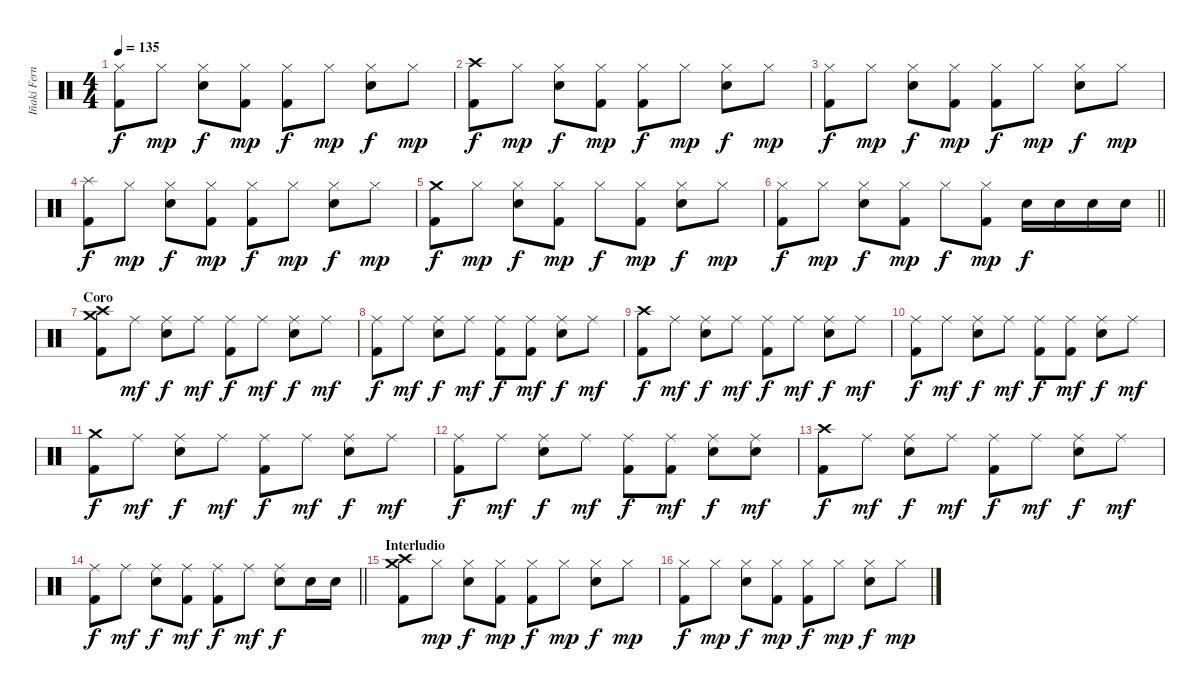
\track ("Iñaki Fernández" "Iñaki Fern") {instrument percussion}
\staff {score}
\articulation defaults
\ts (4 4)
\tempo 135
\clef neutral
\ks c
("Hi-Hat (closed)" "Kick (hit) 2").8{dy f} "Hi-Hat (closed)".8{dy mp} ("Hi-Hat (closed)" "Snare (hit) 2").8{dy f} ("Hi-Hat (closed)" "Kick (hit) 2").8{dy mp} ("Hi-Hat (closed)" "Kick (hit) 2").8{dy f} "Hi-Hat (closed)".8{dy mp} ("Hi-Hat (closed)" "Snare (hit) 2").8{dy f} "Hi-Hat (closed)".8{dy mp} |
("Crash high (hit)" "Kick (hit) 2").8{dy f} "Hi-Hat (closed)".8{dy mp} ("Hi-Hat (closed)" "Snare (hit) 2").8{dy f} ("Hi-Hat (closed)" "Kick (hit) 2").8{dy mp} ("Hi-Hat (closed)" "Kick (hit) 2").8{dy f} "Hi-Hat (closed)".8{dy mp} ("Hi-Hat (closed)" "Snare (hit) 2").8{dy f} "Hi-Hat (closed)".8{dy mp} |
("Hi-Hat (closed)" "Kick (hit) 2").8{dy f} "Hi-Hat (closed)".8{dy mp} ("Hi-Hat (closed)" "Snare (hit) 2").8{dy f} ("Hi-Hat (closed)" "Kick (hit) 2").8{dy mp} ("Hi-Hat (closed)" "Kick (hit) 2").8{dy f} "Hi-Hat (closed)".8{dy mp} ("Hi-Hat (closed)" "Snare (hit) 2").8{dy f} "Hi-Hat (closed)".8{dy mp} |
("Splash (hit)" "Kick (hit) 2").8{dy f} "Hi-Hat (closed)".8{dy mp} ("Hi-Hat (closed)" "Snare (hit) 2").8{dy f} ("Hi-Hat (closed)" "Kick (hit) 2").8{dy mp} ("Hi-Hat (closed)" "Kick (hit) 2").8{dy f} "Hi-Hat (closed)".8{dy mp} ("Hi-Hat (closed)" "Snare (hit) 2").8{dy f} "Hi-Hat (closed)".8{dy mp} |
("Crash medium (hit)" "Kick (hit) 2").8{dy f} "Hi-Hat (closed)".8{dy mp} ("Hi-Hat (closed)" "Snare (hit) 2").8{dy f} ("Hi-Hat (closed)" "Kick (hit) 2").8{dy mp} "Hi-Hat (closed)".8{dy f} ("Hi-Hat (closed)" "Kick (hit) 2").8{dy mp} ("Hi-Hat (closed)" "Snare (hit) 2").8{dy f} "Hi-Hat (closed)".8{dy mp} |
\barLineRight lightlight
("Hi-Hat (closed)" "Kick (hit) 2").8{dy f} "Hi-Hat (closed)".8{dy mp} ("Hi-Hat (closed)" "Snare (hit) 2").8{dy f} ("Hi-Hat (closed)" "Kick (hit) 2").8{dy mp} "Hi-Hat (closed)".8{dy f} ("Hi-Hat (closed)" "Kick (hit) 2").8{dy mp} "Snare (hit) 2".16{dy f} "Snare (hit) 2".16 "Snare (hit) 2".16 "Snare (hit) 2".16 |
\section ("" "Coro")
("Crash medium (hit)" "Crash high (hit)" "Kick (hit) 2").8 "Ride (middle)".8{dy mf} ("Ride (middle)" "Snare (hit) 2").8{dy f} "Ride (middle)".8{dy mf} ("Ride (middle)" "Kick (hit) 2").8{dy f} "Ride (middle)".8{dy mf} ("Ride (middle)" "Snare (hit) 2").8{dy f} "Ride (middle)".8{dy mf} |
("Ride (middle)" "Kick (hit) 2").8{dy f} "Ride (middle)".8{dy mf} ("Ride (middle)" "Snare (hit) 2").8{dy f} "Ride (middle)".8{dy mf} ("Ride (middle)" "Kick (hit) 2").8{dy f} ("Ride (middle)" "Kick (hit) 2").8{dy mf} ("Ride (middle)" "Snare (hit) 2").8{dy f} "Ride (middle)".8{dy mf} |
("Crash high (hit)" "Kick (hit) 2").8{dy f} "Ride (middle)".8{dy mf} ("Ride (middle)" "Snare (hit) 2").8{dy f} "Ride (middle)".8{dy mf} ("Ride (middle)" "Kick (hit) 2").8{dy f} "Ride (middle)".8{dy mf} ("Ride (middle)" "Snare (hit) 2").8{dy f} "Ride (middle)".8{dy mf} |
("Ride (middle)" "Kick (hit) 2").8{dy f} "Ride (middle)".8{dy mf} ("Ride (middle)" "Snare (hit) 2").8{dy f} "Ride (middle)".8{dy mf} ("Ride (middle)" "Kick (hit) 2").8{dy f} ("Ride (middle)" "Kick (hit) 2").8{dy mf} ("Ride (middle)" "Snare (hit) 2").8{dy f} "Ride (middle)".8{dy mf} |
("Crash medium (hit)" "Kick (hit) 2").8{dy f} "Ride (middle)".8{dy mf} ("Ride (middle)" "Snare (hit) 2").8{dy f} "Ride (middle)".8{dy mf} ("Ride (middle)" "Kick (hit) 2").8{dy f} "Ride (middle)".8{dy mf} ("Ride (middle)" "Snare (hit) 2").8{dy f} "Ride (middle)".8{dy mf} |
("Ride (middle)" "Kick (hit) 2").8{dy f} "Ride (middle)".8{dy mf} ("Ride (middle)" "Snare (hit) 2").8{dy f} "Ride (middle)".8{dy mf} ("Ride (middle)" "Kick (hit) 2").8{dy f} ("Ride (middle)" "Kick (hit) 2").8{dy mf} ("Ride (middle)" "Snare (hit) 2").8{dy f} ("Ride (middle)" "Snare (hit) 2").8{dy mf} |
("Crash high (hit)" "Kick (hit) 2").8{dy f} "Ride (middle)".8{dy mf} ("Ride (middle)" "Snare (hit) 2").8{dy f} "Ride (middle)".8{dy mf} ("Ride (middle)" "Kick (hit) 2").8{dy f} "Ride (middle)".8{dy mf} ("Ride (middle)" "Snare (hit) 2").8{dy f} "Ride (middle)".8{dy mf} |
\barLineRight lightlight
("Ride (middle)" "Kick (hit) 2").8{dy f} "Ride (middle)".8{dy mf} ("Ride (middle)" "Snare (hit) 2").8{dy f} ("Ride (middle)" "Kick (hit) 2").8{dy mf} ("Ride (middle)" "Kick (hit) 2").8{dy f} "Ride (middle)".8{dy mf} ("Ride (middle)" "Snare (hit) 2").8{dy f} "Snare (hit) 2".16 "Snare (hit) 2".16 |
\section ("" "Interludio")
("Crash medium (hit)" "Crash high (hit)" "Kick (hit) 2").8 "Hi-Hat (closed)".8{dy mp} ("Hi-Hat (closed)" "Snare (hit) 2").8{dy f} ("Hi-Hat (closed)" "Kick (hit) 2").8{dy mp} ("Hi-Hat (closed)" "Kick (hit) 2").8{dy f} "Hi-Hat (closed)".8{dy mp} ("Hi-Hat (closed)" "Snare (hit) 2").8{dy f} "Hi-Hat (closed)".8{dy mp} |
("Hi-Hat (closed)" "Kick (hit) 2").8{dy f} "Hi-Hat (closed)".8{dy mp} ("Hi-Hat (closed)" "Snare (hit) 2").8{dy f} ("Hi-Hat (closed)" "Kick (hit) 2").8{dy mp} ("Hi-Hat (closed)" "Kick (hit) 2").8{dy f} "Hi-Hat (closed)".8{dy mp} ("Hi-Hat (closed)" "Snare (hit) 2").8{dy f} "Hi-Hat (closed)".8{dy mp}
